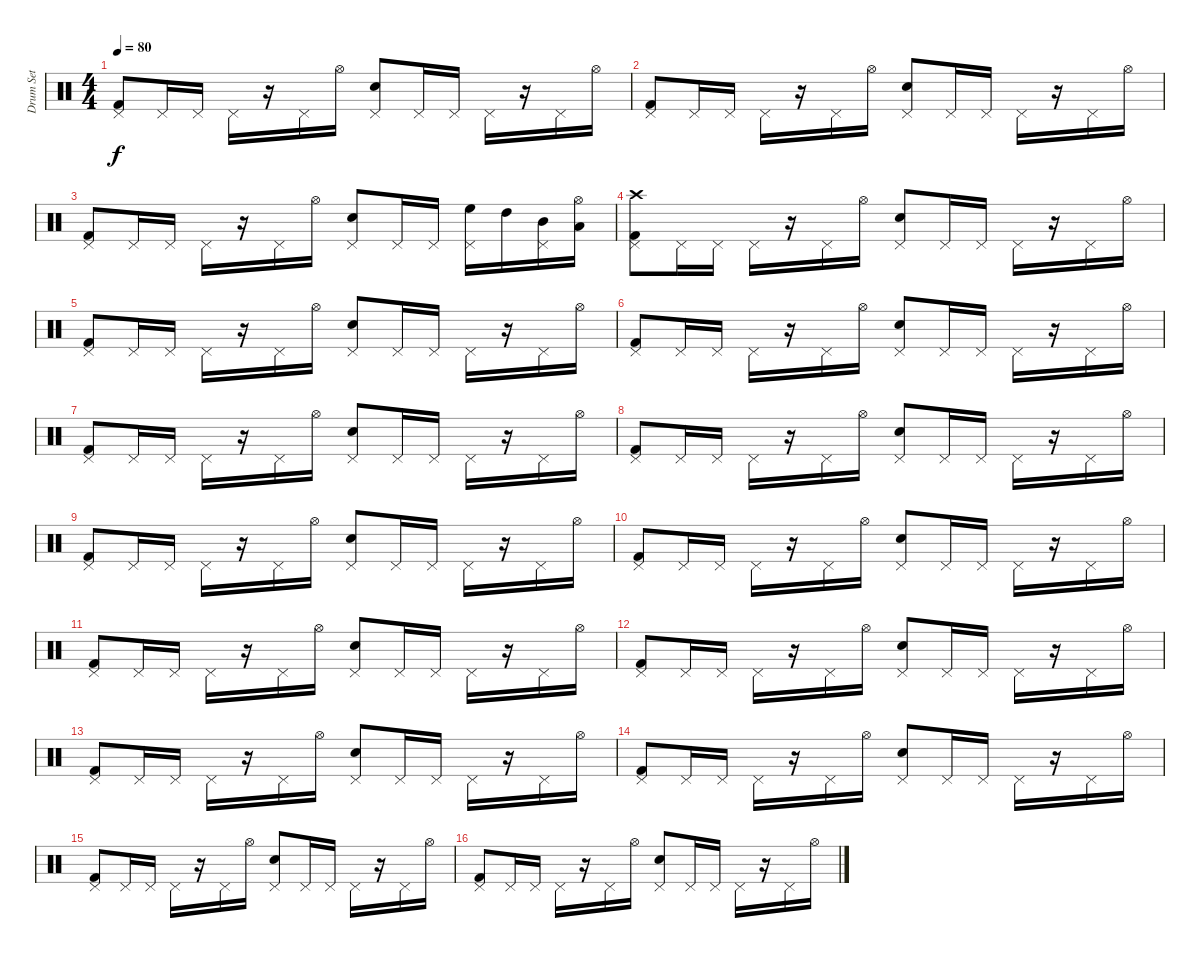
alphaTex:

\track ("Drum Set" "Drum Set") {instrument percussion}
\staff {score}
\articulation defaults
\ts (4 4)
\tempo 80
\clef neutral
\ks c
("Pedal Hi-Hat (hit)" "Kick (hit) 2").8{dy f} "Pedal Hi-Hat (hit)".16 "Pedal Hi-Hat (hit)".16 "Pedal Hi-Hat (hit)".16 r.16 "Pedal Hi-Hat (hit)".16 "Hi-Hat (open)".16 ("Pedal Hi-Hat (hit)" "Electric Snare (hit)").8 "Pedal Hi-Hat (hit)".16 "Pedal Hi-Hat (hit)".16 "Pedal Hi-Hat (hit)".16 r.16 "Pedal Hi-Hat (hit)".16 "Hi-Hat (open)".16 |
("Kick (hit) 2" "Pedal Hi-Hat (hit)").8 "Pedal Hi-Hat (hit)".16 "Pedal Hi-Hat (hit)".16 "Pedal Hi-Hat (hit)".16 r.16 "Pedal Hi-Hat (hit)".16 "Hi-Hat (open)".16 ("Electric Snare (hit)" "Pedal Hi-Hat (hit)").8 "Pedal Hi-Hat (hit)".16 "Pedal Hi-Hat (hit)".16 "Pedal Hi-Hat (hit)".16 r.16 "Pedal Hi-Hat (hit)".16 "Hi-Hat (open)".16 |
("Pedal Hi-Hat (hit)" "Kick (hit) 2").8 "Pedal Hi-Hat (hit)".16 "Pedal Hi-Hat (hit)".16 "Pedal Hi-Hat (hit)".16 r.16 "Pedal Hi-Hat (hit)".16 "Hi-Hat (open)".16 ("Pedal Hi-Hat (hit)" "Electric Snare (hit)").8 "Pedal Hi-Hat (hit)".16 "Pedal Hi-Hat (hit)".16 ("Pedal Hi-Hat (hit)" "High Floor Tom (hit)").16 "High Tom (hit)".16 ("Pedal Hi-Hat (hit)" "Mid Tom (hit)").16 ("Hi-Hat (open)" "Low Tom (hit)").16 |
("Pedal Hi-Hat (hit)" "Kick (hit) 2" "Crash high (hit)").8 "Pedal Hi-Hat (hit)".16 "Pedal Hi-Hat (hit)".16 "Pedal Hi-Hat (hit)".16 r.16 "Pedal Hi-Hat (hit)".16 "Hi-Hat (open)".16 ("Pedal Hi-Hat (hit)" "Electric Snare (hit)").8 "Pedal Hi-Hat (hit)".16 "Pedal Hi-Hat (hit)".16 "Pedal Hi-Hat (hit)".16 r.16 "Pedal Hi-Hat (hit)".16 "Hi-Hat (open)".16 |
("Pedal Hi-Hat (hit)" "Kick (hit) 2").8 "Pedal Hi-Hat (hit)".16 "Pedal Hi-Hat (hit)".16 "Pedal Hi-Hat (hit)".16 r.16 "Pedal Hi-Hat (hit)".16 "Hi-Hat (open)".16 ("Pedal Hi-Hat (hit)" "Electric Snare (hit)").8 "Pedal Hi-Hat (hit)".16 "Pedal Hi-Hat (hit)".16 "Pedal Hi-Hat (hit)".16 r.16 "Pedal Hi-Hat (hit)".16 "Hi-Hat (open)".16 |
("Kick (hit) 2" "Pedal Hi-Hat (hit)").8 "Pedal Hi-Hat (hit)".16 "Pedal Hi-Hat (hit)".16 "Pedal Hi-Hat (hit)".16 r.16 "Pedal Hi-Hat (hit)".16 "Hi-Hat (open)".16 ("Electric Snare (hit)" "Pedal Hi-Hat (hit)").8 "Pedal Hi-Hat (hit)".16 "Pedal Hi-Hat (hit)".16 "Pedal Hi-Hat (hit)".16 r.16 "Pedal Hi-Hat (hit)".16 "Hi-Hat (open)".16 |
("Pedal Hi-Hat (hit)" "Kick (hit) 2").8 "Pedal Hi-Hat (hit)".16 "Pedal Hi-Hat (hit)".16 "Pedal Hi-Hat (hit)".16 r.16 "Pedal Hi-Hat (hit)".16 "Hi-Hat (open)".16 ("Pedal Hi-Hat (hit)" "Electric Snare (hit)").8 "Pedal Hi-Hat (hit)".16 "Pedal Hi-Hat (hit)".16 "Pedal Hi-Hat (hit)".16 r.16 "Pedal Hi-Hat (hit)".16 "Hi-Hat (open)".16 |
("Kick (hit) 2" "Pedal Hi-Hat (hit)").8 "Pedal Hi-Hat (hit)".16 "Pedal Hi-Hat (hit)".16 "Pedal Hi-Hat (hit)".16 r.16 "Pedal Hi-Hat (hit)".16 "Hi-Hat (open)".16 ("Electric Snare (hit)" "Pedal Hi-Hat (hit)").8 "Pedal Hi-Hat (hit)".16 "Pedal Hi-Hat (hit)".16 "Pedal Hi-Hat (hit)".16 r.16 "Pedal Hi-Hat (hit)".16 "Hi-Hat (open)".16 |
("Pedal Hi-Hat (hit)" "Kick (hit) 2").8 "Pedal Hi-Hat (hit)".16 "Pedal Hi-Hat (hit)".16 "Pedal Hi-Hat (hit)".16 r.16 "Pedal Hi-Hat (hit)".16 "Hi-Hat (open)".16 ("Pedal Hi-Hat (hit)" "Electric Snare (hit)").8 "Pedal Hi-Hat (hit)".16 "Pedal Hi-Hat (hit)".16 "Pedal Hi-Hat (hit)".16 r.16 "Pedal Hi-Hat (hit)".16 "Hi-Hat (open)".16 |
("Kick (hit) 2" "Pedal Hi-Hat (hit)").8 "Pedal Hi-Hat (hit)".16 "Pedal Hi-Hat (hit)".16 "Pedal Hi-Hat (hit)".16 r.16 "Pedal Hi-Hat (hit)".16 "Hi-Hat (open)".16 ("Electric Snare (hit)" "Pedal Hi-Hat (hit)").8 "Pedal Hi-Hat (hit)".16 "Pedal Hi-Hat (hit)".16 "Pedal Hi-Hat (hit)".16 r.16 "Pedal Hi-Hat (hit)".16 "Hi-Hat (open)".16 |
("Pedal Hi-Hat (hit)" "Kick (hit) 2").8 "Pedal Hi-Hat (hit)".16 "Pedal Hi-Hat (hit)".16 "Pedal Hi-Hat (hit)".16 r.16 "Pedal Hi-Hat (hit)".16 "Hi-Hat (open)".16 ("Pedal Hi-Hat (hit)" "Electric Snare (hit)").8 "Pedal Hi-Hat (hit)".16 "Pedal Hi-Hat (hit)".16 "Pedal Hi-Hat (hit)".16 r.16 "Pedal Hi-Hat (hit)".16 "Hi-Hat (open)".16 |
("Kick (hit) 2" "Pedal Hi-Hat (hit)").8 "Pedal Hi-Hat (hit)".16 "Pedal Hi-Hat (hit)".16 "Pedal Hi-Hat (hit)".16 r.16 "Pedal Hi-Hat (hit)".16 "Hi-Hat (open)".16 ("Electric Snare (hit)" "Pedal Hi-Hat (hit)").8 "Pedal Hi-Hat (hit)".16 "Pedal Hi-Hat (hit)".16 "Pedal Hi-Hat (hit)".16 r.16 "Pedal Hi-Hat (hit)".16 "Hi-Hat (open)".16 |
("Pedal Hi-Hat (hit)" "Kick (hit) 2").8 "Pedal Hi-Hat (hit)".16 "Pedal Hi-Hat (hit)".16 "Pedal Hi-Hat (hit)".16 r.16 "Pedal Hi-Hat (hit)".16 "Hi-Hat (open)".16 ("Pedal Hi-Hat (hit)" "Electric Snare (hit)").8 "Pedal Hi-Hat (hit)".16 "Pedal Hi-Hat (hit)".16 "Pedal Hi-Hat (hit)".16 r.16 "Pedal Hi-Hat (hit)".16 "Hi-Hat (open)".16 |
("Kick (hit) 2" "Pedal Hi-Hat (hit)").8 "Pedal Hi-Hat (hit)".16 "Pedal Hi-Hat (hit)".16 "Pedal Hi-Hat (hit)".16 r.16 "Pedal Hi-Hat (hit)".16 "Hi-Hat (open)".16 ("Electric Snare (hit)" "Pedal Hi-Hat (hit)").8 "Pedal Hi-Hat (hit)".16 "Pedal Hi-Hat (hit)".16 "Pedal Hi-Hat (hit)".16 r.16 "Pedal Hi-Hat (hit)".16 "Hi-Hat (open)".16 |
("Pedal Hi-Hat (hit)" "Kick (hit) 2").8 "Pedal Hi-Hat (hit)".16 "Pedal Hi-Hat (hit)".16 "Pedal Hi-Hat (hit)".16 r.16 "Pedal Hi-Hat (hit)".16 "Hi-Hat (open)".16 ("Pedal Hi-Hat (hit)" "Electric Snare (hit)").8 "Pedal Hi-Hat (hit)".16 "Pedal Hi-Hat (hit)".16 "Pedal Hi-Hat (hit)".16 r.16 "Pedal Hi-Hat (hit)".16 "Hi-Hat (open)".16 |
("Kick (hit) 2" "Pedal Hi-Hat (hit)").8 "Pedal Hi-Hat (hit)".16 "Pedal Hi-Hat (hit)".16 "Pedal Hi-Hat (hit)".16 r.16 "Pedal Hi-Hat (hit)".16 "Hi-Hat (open)".16 ("Electric Snare (hit)" "Pedal Hi-Hat (hit)").8 "Pedal Hi-Hat (hit)".16 "Pedal Hi-Hat (hit)".16 "Pedal Hi-Hat (hit)".16 r.16 "Pedal Hi-Hat (hit)".16 "Hi-Hat (open)".16
